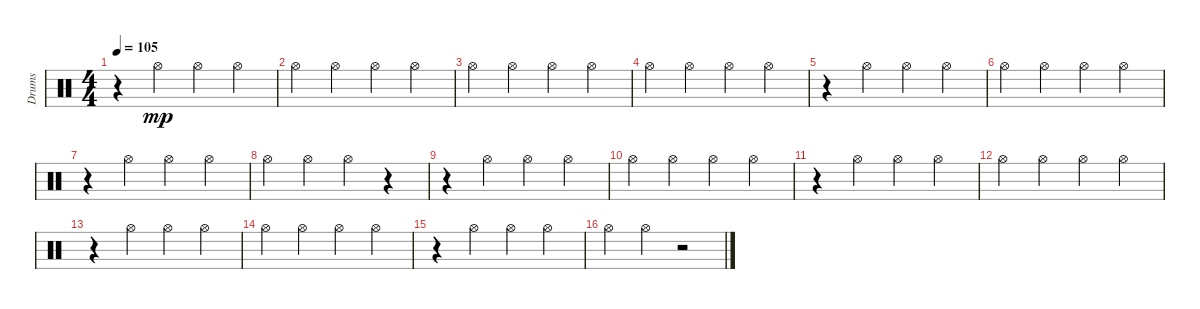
\track ("Drums" "Drums") {instrument percussion}
\staff {score}
\articulation defaults
\ts (4 4)
\tempo 105
\clef neutral
\ks c
r.4{dy mf} "Hi-Hat (open)".4{dy mp} "Hi-Hat (open)".4 "Hi-Hat (open)".4 |
"Hi-Hat (open)".4 "Hi-Hat (open)".4 "Hi-Hat (open)".4 "Hi-Hat (open)".4 |
"Hi-Hat (open)".4 "Hi-Hat (open)".4 "Hi-Hat (open)".4 "Hi-Hat (open)".4 |
"Hi-Hat (open)".4 "Hi-Hat (open)".4 "Hi-Hat (open)".4 "Hi-Hat (open)".4 |
r.4 "Hi-Hat (open)".4 "Hi-Hat (open)".4 "Hi-Hat (open)".4 |
"Hi-Hat (open)".4 "Hi-Hat (open)".4 "Hi-Hat (open)".4 "Hi-Hat (open)".4 |
r.4 "Hi-Hat (open)".4 "Hi-Hat (open)".4 "Hi-Hat (open)".4 |
"Hi-Hat (open)".4 "Hi-Hat (open)".4 "Hi-Hat (open)".4 r.4 |
r.4 "Hi-Hat (open)".4 "Hi-Hat (open)".4 "Hi-Hat (open)".4 |
"Hi-Hat (open)".4 "Hi-Hat (open)".4 "Hi-Hat (open)".4 "Hi-Hat (open)".4 |
r.4 "Hi-Hat (open)".4 "Hi-Hat (open)".4 "Hi-Hat (open)".4 |
"Hi-Hat (open)".4 "Hi-Hat (open)".4 "Hi-Hat (open)".4 "Hi-Hat (open)".4 |
r.4 "Hi-Hat (open)".4 "Hi-Hat (open)".4 "Hi-Hat (open)".4 |
"Hi-Hat (open)".4 "Hi-Hat (open)".4 "Hi-Hat (open)".4 "Hi-Hat (open)".4 |
r.4 "Hi-Hat (open)".4 "Hi-Hat (open)".4 "Hi-Hat (open)".4 |
"Hi-Hat (open)".4 "Hi-Hat (open)".4 r.2
